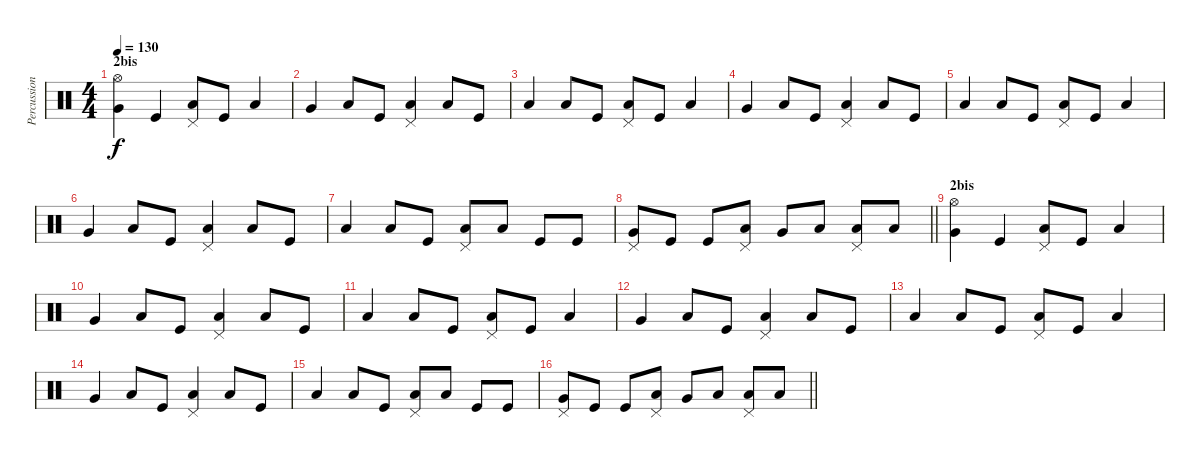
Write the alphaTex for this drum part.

\track ("Percussioni" "Percussion") {instrument percussion}
\staff {score}
\articulation defaults
\ts (4 4)
\section ("" "2bis")
\tempo 130
\clef neutral
\ks c
("Hi-Hat (open)" "Very Low Tom (hit)").4{dy f} "Kick (hit)".4 ("Low Floor Tom (hit)" "Pedal Hi-Hat (hit)").8 "Kick (hit)".8 "Low Floor Tom (hit)".4 |
"Very Low Tom (hit)".4 "Low Floor Tom (hit)".8 "Kick (hit)".8 ("Low Floor Tom (hit)" "Pedal Hi-Hat (hit)").4 "Low Floor Tom (hit)".8 "Kick (hit)".8 |
"Low Floor Tom (hit)".4 "Low Floor Tom (hit)".8 "Kick (hit)".8 ("Low Floor Tom (hit)" "Pedal Hi-Hat (hit)").8 "Kick (hit)".8 "Low Floor Tom (hit)".4 |
"Very Low Tom (hit)".4 "Low Floor Tom (hit)".8 "Kick (hit)".8 ("Low Floor Tom (hit)" "Pedal Hi-Hat (hit)").4 "Low Floor Tom (hit)".8 "Kick (hit)".8 |
"Low Floor Tom (hit)".4 "Low Floor Tom (hit)".8 "Kick (hit)".8 ("Low Floor Tom (hit)" "Pedal Hi-Hat (hit)").8 "Kick (hit)".8 "Low Floor Tom (hit)".4 |
"Very Low Tom (hit)".4 "Low Floor Tom (hit)".8 "Kick (hit)".8 ("Low Floor Tom (hit)" "Pedal Hi-Hat (hit)").4 "Low Floor Tom (hit)".8 "Kick (hit)".8 |
"Low Floor Tom (hit)".4 "Low Floor Tom (hit)".8 "Kick (hit)".8 ("Low Floor Tom (hit)" "Pedal Hi-Hat (hit)").8 "Low Floor Tom (hit)".8 "Kick (hit)".8 "Kick (hit)".8 |
\barLineRight lightlight
("Very Low Tom (hit)" "Pedal Hi-Hat (hit)").8 "Kick (hit)".8 "Kick (hit)".8 ("Low Floor Tom (hit)" "Pedal Hi-Hat (hit)").8 "Very Low Tom (hit)".8 "Low Floor Tom (hit)".8 ("Low Floor Tom (hit)" "Pedal Hi-Hat (hit)").8 "Low Floor Tom (hit)".8 |
\section ("" "2bis")
("Hi-Hat (open)" "Very Low Tom (hit)").4 "Kick (hit)".4 ("Low Floor Tom (hit)" "Pedal Hi-Hat (hit)").8 "Kick (hit)".8 "Low Floor Tom (hit)".4 |
"Very Low Tom (hit)".4 "Low Floor Tom (hit)".8 "Kick (hit)".8 ("Low Floor Tom (hit)" "Pedal Hi-Hat (hit)").4 "Low Floor Tom (hit)".8 "Kick (hit)".8 |
"Low Floor Tom (hit)".4 "Low Floor Tom (hit)".8 "Kick (hit)".8 ("Low Floor Tom (hit)" "Pedal Hi-Hat (hit)").8 "Kick (hit)".8 "Low Floor Tom (hit)".4 |
"Very Low Tom (hit)".4 "Low Floor Tom (hit)".8 "Kick (hit)".8 ("Low Floor Tom (hit)" "Pedal Hi-Hat (hit)").4 "Low Floor Tom (hit)".8 "Kick (hit)".8 |
"Low Floor Tom (hit)".4 "Low Floor Tom (hit)".8 "Kick (hit)".8 ("Low Floor Tom (hit)" "Pedal Hi-Hat (hit)").8 "Kick (hit)".8 "Low Floor Tom (hit)".4 |
"Very Low Tom (hit)".4 "Low Floor Tom (hit)".8 "Kick (hit)".8 ("Low Floor Tom (hit)" "Pedal Hi-Hat (hit)").4 "Low Floor Tom (hit)".8 "Kick (hit)".8 |
"Low Floor Tom (hit)".4 "Low Floor Tom (hit)".8 "Kick (hit)".8 ("Low Floor Tom (hit)" "Pedal Hi-Hat (hit)").8 "Low Floor Tom (hit)".8 "Kick (hit)".8 "Kick (hit)".8 |
\barLineRight lightlight
("Very Low Tom (hit)" "Pedal Hi-Hat (hit)").8 "Kick (hit)".8 "Kick (hit)".8 ("Low Floor Tom (hit)" "Pedal Hi-Hat (hit)").8 "Very Low Tom (hit)".8 "Low Floor Tom (hit)".8 ("Low Floor Tom (hit)" "Pedal Hi-Hat (hit)").8 "Low Floor Tom (hit)".8
